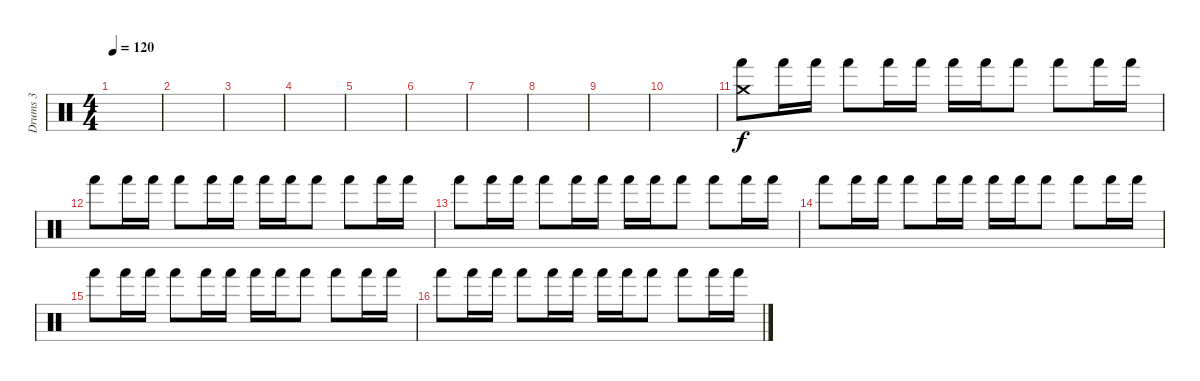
\track ("Drums 3" "Drums 3") {instrument percussion}
\staff {score}
\articulation defaults
\ts (4 4)
\tempo 120
\clef neutral
\ks c
|
|
|
|
|
|
|
|
|
|
("Crash medium (hit)" "Hand (hit)").8 "Hand (hit)".16 "Hand (hit)".16 "Hand (hit)".8 "Hand (hit)".16 "Hand (hit)".16 "Hand (hit)".16 "Hand (hit)".16 "Hand (hit)".8 "Hand (hit)".8 "Hand (hit)".16 "Hand (hit)".16 |
"Hand (hit)".8 "Hand (hit)".16 "Hand (hit)".16 "Hand (hit)".8 "Hand (hit)".16 "Hand (hit)".16 "Hand (hit)".16 "Hand (hit)".16 "Hand (hit)".8 "Hand (hit)".8 "Hand (hit)".16 "Hand (hit)".16 |
"Hand (hit)".8 "Hand (hit)".16 "Hand (hit)".16 "Hand (hit)".8 "Hand (hit)".16 "Hand (hit)".16 "Hand (hit)".16 "Hand (hit)".16 "Hand (hit)".8 "Hand (hit)".8 "Hand (hit)".16 "Hand (hit)".16 |
"Hand (hit)".8 "Hand (hit)".16 "Hand (hit)".16 "Hand (hit)".8 "Hand (hit)".16 "Hand (hit)".16 "Hand (hit)".16 "Hand (hit)".16 "Hand (hit)".8 "Hand (hit)".8 "Hand (hit)".16 "Hand (hit)".16 |
"Hand (hit)".8 "Hand (hit)".16 "Hand (hit)".16 "Hand (hit)".8 "Hand (hit)".16 "Hand (hit)".16 "Hand (hit)".16 "Hand (hit)".16 "Hand (hit)".8 "Hand (hit)".8 "Hand (hit)".16 "Hand (hit)".16 |
"Hand (hit)".8 "Hand (hit)".16 "Hand (hit)".16 "Hand (hit)".8 "Hand (hit)".16 "Hand (hit)".16 "Hand (hit)".16 "Hand (hit)".16 "Hand (hit)".8 "Hand (hit)".8 "Hand (hit)".16 "Hand (hit)".16
